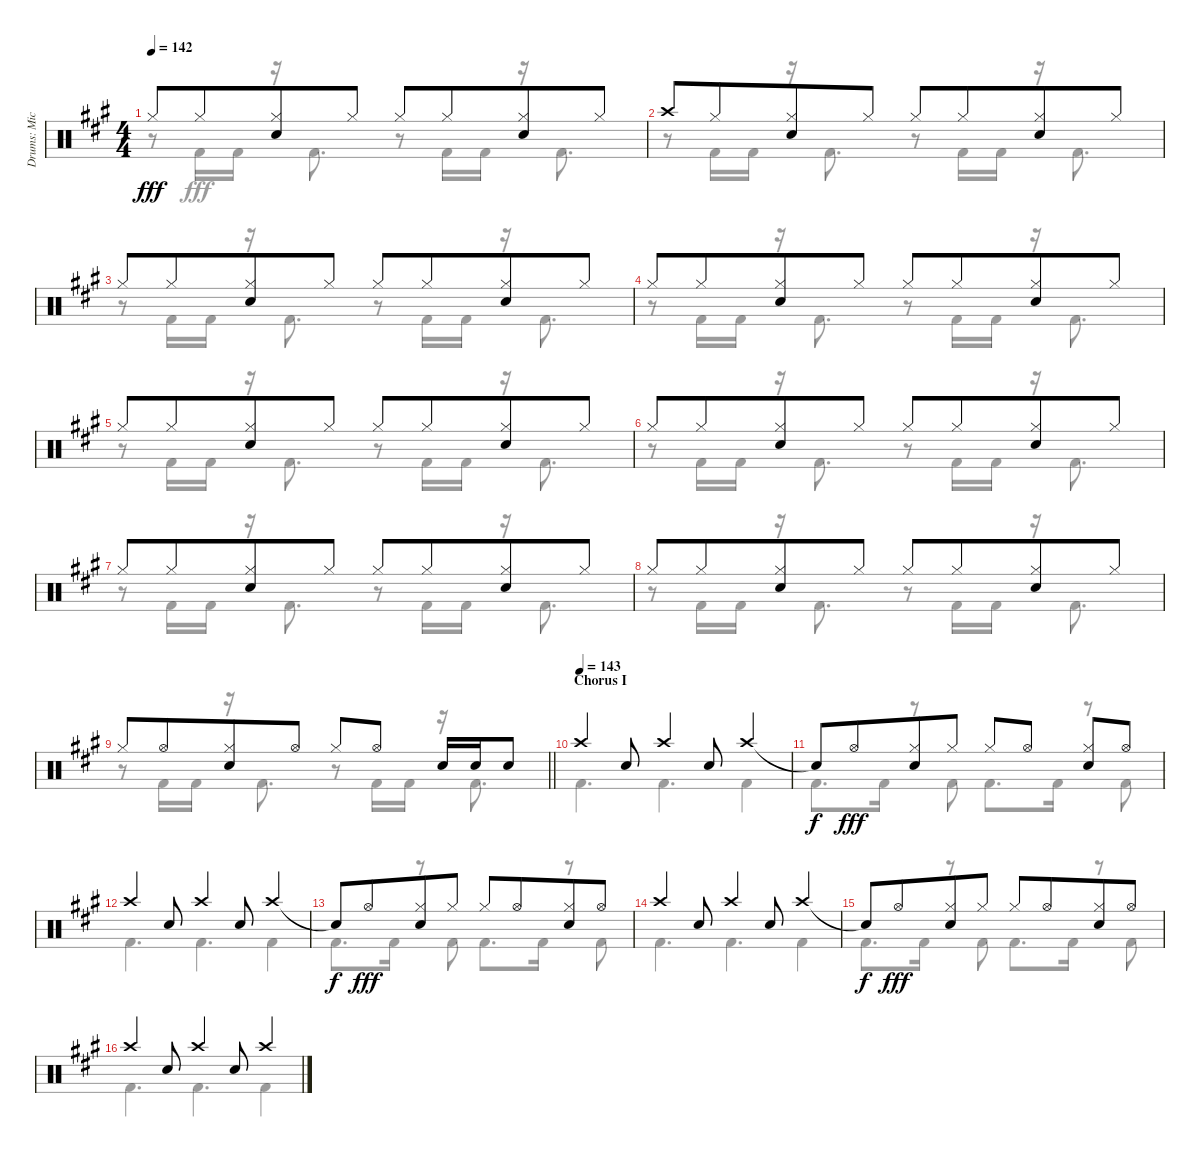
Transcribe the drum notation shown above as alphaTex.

\track ("Drums: Mick" "Drums: Mic") {instrument percussion}
\staff {score}
\articulation defaults
\voice
\ts (4 4)
\tempo 142
\clef neutral
\ks a "Hi-Hat (closed)".8{dy fff} "Hi-Hat (closed)".8{beam merge}
("Hi-Hat (closed)" "Snare (hit) 2").8 "Hi-Hat (closed)".8 "Hi-Hat (closed)".8{beam merge} "Hi-Hat (closed)".8{beam merge} ("Hi-Hat (closed)" "Snare (hit) 2").8 "Hi-Hat (closed)".8 |
"Crash high (hit)".8 "Hi-Hat (closed)".8{beam merge} ("Hi-Hat (closed)" "Snare (hit) 2").8 "Hi-Hat (closed)".8 "Hi-Hat (closed)".8{beam merge} "Hi-Hat (closed)".8{beam merge} ("Hi-Hat (closed)" "Snare (hit) 2").8 "Hi-Hat (closed)".8 |
"Hi-Hat (closed)".8 "Hi-Hat (closed)".8{beam merge} ("Hi-Hat (closed)" "Snare (hit) 2").8 "Hi-Hat (closed)".8 "Hi-Hat (closed)".8{beam merge} "Hi-Hat (closed)".8{beam merge} ("Hi-Hat (closed)" "Snare (hit) 2").8 "Hi-Hat (closed)".8 |
"Hi-Hat (closed)".8 "Hi-Hat (closed)".8{beam merge} ("Hi-Hat (closed)" "Snare (hit) 2").8 "Hi-Hat (closed)".8 "Hi-Hat (closed)".8{beam merge} "Hi-Hat (closed)".8{beam merge} ("Hi-Hat (closed)" "Snare (hit) 2").8 "Hi-Hat (closed)".8 |
"Hi-Hat (closed)".8 "Hi-Hat (closed)".8{beam merge} ("Hi-Hat (closed)" "Snare (hit) 2").8 "Hi-Hat (closed)".8 "Hi-Hat (closed)".8{beam merge} "Hi-Hat (closed)".8{beam merge} ("Hi-Hat (closed)" "Snare (hit) 2").8 "Hi-Hat (closed)".8 |
"Hi-Hat (closed)".8 "Hi-Hat (closed)".8{beam merge} ("Hi-Hat (closed)" "Snare (hit) 2").8 "Hi-Hat (closed)".8 "Hi-Hat (closed)".8{beam merge} "Hi-Hat (closed)".8{beam merge} ("Hi-Hat (closed)" "Snare (hit) 2").8 "Hi-Hat (closed)".8 |
"Hi-Hat (closed)".8 "Hi-Hat (closed)".8{beam merge} ("Hi-Hat (closed)" "Snare (hit) 2").8 "Hi-Hat (closed)".8 "Hi-Hat (closed)".8{beam merge} "Hi-Hat (closed)".8{beam merge} ("Hi-Hat (closed)" "Snare (hit) 2").8 "Hi-Hat (closed)".8 |
"Hi-Hat (closed)".8 "Hi-Hat (closed)".8{beam merge} ("Hi-Hat (closed)" "Snare (hit) 2").8 "Hi-Hat (closed)".8 "Hi-Hat (closed)".8{beam merge} "Hi-Hat (closed)".8{beam merge} ("Hi-Hat (closed)" "Snare (hit) 2").8 "Hi-Hat (closed)".8 |
\barLineRight lightlight "Hi-Hat (closed)".8 "Hi-Hat (open)".8{beam merge}
("Hi-Hat (closed)" "Snare (hit) 2").8 "Hi-Hat (open)".8 "Hi-Hat (closed)".8{beam merge} "Hi-Hat (open)".8 "Snare (hit) 2".16 "Snare (hit) 2".16 "Snare (hit) 2".8 |
\section ("" "Chorus I")
\tempo (143)
"Crash high (hit)".4 "Snare (hit) 2".8 "Crash high (hit)".4 "Snare (hit) 2".8 "Crash high (hit)".4 |
"Snare (hit)"{t}.8{dy f} "Hi-Hat (open)".8{dy fff beam merge} ("Hi-Hat (closed)" "Snare (hit) 2").8 "Hi-Hat (closed)".8 "Hi-Hat (closed)".8 "Hi-Hat (open)".8 ("Hi-Hat (closed)" "Snare (hit) 2").8 "Hi-Hat (open)".8 |
"Crash high (hit)".4 "Snare (hit) 2".8 "Crash high (hit)".4 "Snare (hit) 2".8 "Crash high (hit)".4 |
"Snare (hit)"{t}.8{dy f} "Hi-Hat (open)".8{dy fff beam merge} ("Hi-Hat (closed)" "Snare (hit) 2").8 "Hi-Hat (closed)".8 "Hi-Hat (closed)".8 "Hi-Hat (open)".8{beam merge} ("Hi-Hat (closed)" "Snare (hit) 2").8 "Hi-Hat (open)".8 |
"Crash high (hit)".4 "Snare (hit) 2".8 "Crash high (hit)".4 "Snare (hit) 2".8 "Crash high (hit)".4 |
"Snare (hit)"{t}.8{dy f} "Hi-Hat (open)".8{dy fff beam merge} ("Hi-Hat (closed)" "Snare (hit) 2").8 "Hi-Hat (closed)".8 "Hi-Hat (closed)".8 "Hi-Hat (open)".8{beam merge} ("Hi-Hat (closed)" "Snare (hit) 2").8 "Hi-Hat (open)".8 |
"Crash high (hit)".4 "Snare (hit) 2".8 "Crash high (hit)".4 "Snare (hit) 2".8 "Crash high (hit)".4
\voice
\clef neutral
\ottava regular
\simile none
\ks a
r.8{dy fff} "Kick (hit) 2".16 "Kick (hit) 2".16 r.16 "Kick (hit) 2".8{d} r.8 "Kick (hit) 2".16 "Kick (hit) 2".16 r.16 "Kick (hit) 2".8{d} |
r.8 "Kick (hit) 2".16 "Kick (hit) 2".16 r.16 "Kick (hit) 2".8{d} r.8 "Kick (hit) 2".16 "Kick (hit) 2".16 r.16 "Kick (hit) 2".8{d} |
r.8 "Kick (hit) 2".16 "Kick (hit) 2".16 r.16 "Kick (hit) 2".8{d} r.8 "Kick (hit) 2".16 "Kick (hit) 2".16 r.16 "Kick (hit) 2".8{d} |
r.8 "Kick (hit) 2".16 "Kick (hit) 2".16 r.16 "Kick (hit) 2".8{d} r.8 "Kick (hit) 2".16 "Kick (hit) 2".16 r.16 "Kick (hit) 2".8{d} |
r.8 "Kick (hit) 2".16 "Kick (hit) 2".16 r.16 "Kick (hit) 2".8{d} r.8 "Kick (hit) 2".16 "Kick (hit) 2".16 r.16 "Kick (hit) 2".8{d} |
r.8 "Kick (hit) 2".16 "Kick (hit) 2".16 r.16 "Kick (hit) 2".8{d} r.8 "Kick (hit) 2".16 "Kick (hit) 2".16 r.16 "Kick (hit) 2".8{d} |
r.8 "Kick (hit) 2".16 "Kick (hit) 2".16 r.16 "Kick (hit) 2".8{d} r.8 "Kick (hit) 2".16 "Kick (hit) 2".16 r.16 "Kick (hit) 2".8{d} |
r.8 "Kick (hit) 2".16 "Kick (hit) 2".16 r.16 "Kick (hit) 2".8{d} r.8 "Kick (hit) 2".16 "Kick (hit) 2".16 r.16 "Kick (hit) 2".8{d} |
\barLineRight lightlight
r.8 "Kick (hit) 2".16 "Kick (hit) 2".16 r.16 "Kick (hit) 2".8{d} r.8 "Kick (hit) 2".16 "Kick (hit) 2".16 r.16 "Kick (hit) 2".8{d} |
"Kick (hit) 2".4{d} "Kick (hit) 2".4{d} "Kick (hit) 2".4 |
"Kick (hit) 2".8{d} "Kick (hit) 2".16 r.8 "Kick (hit) 2".8 "Kick (hit) 2".8{d} "Kick (hit) 2".16 r.8 "Kick (hit) 2".8 |
"Kick (hit) 2".4{d} "Kick (hit) 2".4{d} "Kick (hit) 2".4 |
"Kick (hit) 2".8{d} "Kick (hit) 2".16 r.8 "Kick (hit) 2".8 "Kick (hit) 2".8{d} "Kick (hit) 2".16 r.8 "Kick (hit) 2".8 |
"Kick (hit) 2".4{d} "Kick (hit) 2".4{d} "Kick (hit) 2".4 |
"Kick (hit) 2".8{d} "Kick (hit) 2".16 r.8 "Kick (hit) 2".8 "Kick (hit) 2".8{d} "Kick (hit) 2".16 r.8 "Kick (hit) 2".8 |
"Kick (hit) 2".4{d} "Kick (hit) 2".4{d} "Kick (hit) 2".4
